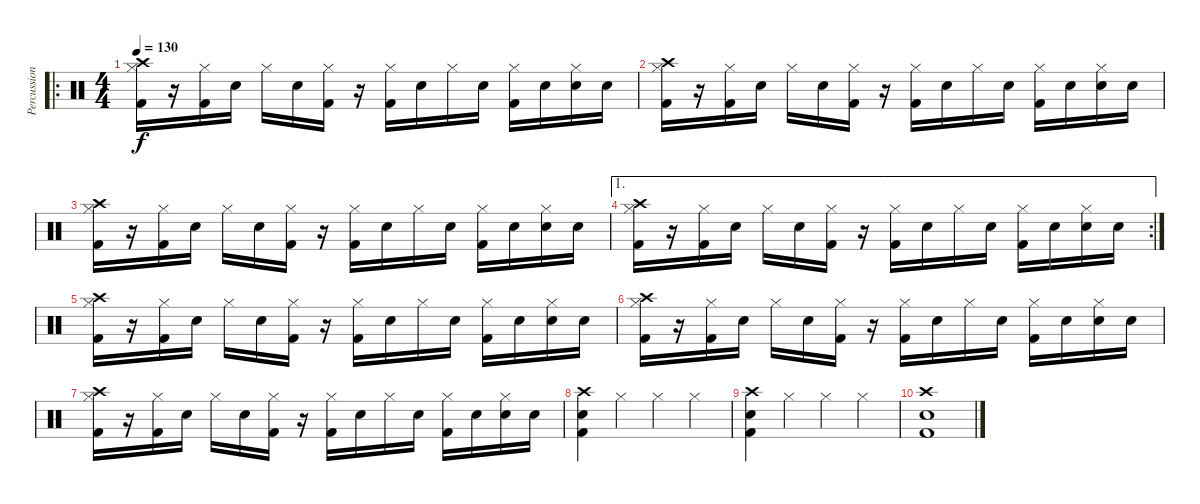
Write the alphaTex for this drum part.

\track ("Percussion" "Percussion") {instrument percussion}
\staff {score}
\articulation defaults
\ro
\ts (4 4)
\tempo 130
\clef neutral
\ks c
("Crash high (hit)" "Hi-Hat (closed)" "Kick (hit) 2").16{dy f} r.16 ("Hi-Hat (closed)" "Kick (hit) 2").16 "Snare (hit) 2".16 "Hi-Hat (closed)".16 "Snare (hit) 2".16 ("Hi-Hat (closed)" "Kick (hit) 2").16 r.16 ("Hi-Hat (closed)" "Kick (hit) 2").16 "Snare (hit) 2".16 "Hi-Hat (closed)".16 "Snare (hit) 2".16 ("Hi-Hat (closed)" "Kick (hit) 2").16 "Snare (hit) 2".16 ("Hi-Hat (closed)" "Snare (hit) 2").16 "Snare (hit) 2".16 |
("Crash high (hit)" "Hi-Hat (closed)" "Kick (hit) 2").16 r.16 ("Hi-Hat (closed)" "Kick (hit) 2").16 "Snare (hit) 2".16 "Hi-Hat (closed)".16 "Snare (hit) 2".16 ("Hi-Hat (closed)" "Kick (hit) 2").16 r.16 ("Hi-Hat (closed)" "Kick (hit) 2").16 "Snare (hit) 2".16 "Hi-Hat (closed)".16 "Snare (hit) 2".16 ("Hi-Hat (closed)" "Kick (hit) 2").16 "Snare (hit) 2".16 ("Hi-Hat (closed)" "Snare (hit) 2").16 "Snare (hit) 2".16 |
("Crash high (hit)" "Hi-Hat (closed)" "Kick (hit) 2").16 r.16 ("Hi-Hat (closed)" "Kick (hit) 2").16 "Snare (hit) 2".16 "Hi-Hat (closed)".16 "Snare (hit) 2".16 ("Hi-Hat (closed)" "Kick (hit) 2").16 r.16 ("Hi-Hat (closed)" "Kick (hit) 2").16 "Snare (hit) 2".16 "Hi-Hat (closed)".16 "Snare (hit) 2".16 ("Hi-Hat (closed)" "Kick (hit) 2").16 "Snare (hit) 2".16 ("Hi-Hat (closed)" "Snare (hit) 2").16 "Snare (hit) 2".16 |
\ae 1
\rc 2
("Crash high (hit)" "Hi-Hat (closed)" "Kick (hit) 2").16 r.16 ("Hi-Hat (closed)" "Kick (hit) 2").16 "Snare (hit) 2".16 "Hi-Hat (closed)".16 "Snare (hit) 2".16 ("Hi-Hat (closed)" "Kick (hit) 2").16 r.16 ("Hi-Hat (closed)" "Kick (hit) 2").16 "Snare (hit) 2".16 "Hi-Hat (closed)".16 "Snare (hit) 2".16 ("Hi-Hat (closed)" "Kick (hit) 2").16 "Snare (hit) 2".16 ("Hi-Hat (closed)" "Snare (hit) 2").16 "Snare (hit) 2".16 |
("Crash high (hit)" "Hi-Hat (closed)" "Kick (hit) 2").16 r.16 ("Hi-Hat (closed)" "Kick (hit) 2").16 "Snare (hit) 2".16 "Hi-Hat (closed)".16 "Snare (hit) 2".16 ("Hi-Hat (closed)" "Kick (hit) 2").16 r.16 ("Hi-Hat (closed)" "Kick (hit) 2").16 "Snare (hit) 2".16 "Hi-Hat (closed)".16 "Snare (hit) 2".16 ("Hi-Hat (closed)" "Kick (hit) 2").16 "Snare (hit) 2".16 ("Hi-Hat (closed)" "Snare (hit) 2").16 "Snare (hit) 2".16 |
("Crash high (hit)" "Hi-Hat (closed)" "Kick (hit) 2").16 r.16 ("Hi-Hat (closed)" "Kick (hit) 2").16 "Snare (hit) 2".16 "Hi-Hat (closed)".16 "Snare (hit) 2".16 ("Hi-Hat (closed)" "Kick (hit) 2").16 r.16 ("Hi-Hat (closed)" "Kick (hit) 2").16 "Snare (hit) 2".16 "Hi-Hat (closed)".16 "Snare (hit) 2".16 ("Hi-Hat (closed)" "Kick (hit) 2").16 "Snare (hit) 2".16 ("Hi-Hat (closed)" "Snare (hit) 2").16 "Snare (hit) 2".16 |
("Crash high (hit)" "Hi-Hat (closed)" "Kick (hit) 2").16 r.16 ("Hi-Hat (closed)" "Kick (hit) 2").16 "Snare (hit) 2".16 "Hi-Hat (closed)".16 "Snare (hit) 2".16 ("Hi-Hat (closed)" "Kick (hit) 2").16 r.16 ("Hi-Hat (closed)" "Kick (hit) 2").16 "Snare (hit) 2".16 "Hi-Hat (closed)".16 "Snare (hit) 2".16 ("Hi-Hat (closed)" "Kick (hit) 2").16 "Snare (hit) 2".16 ("Hi-Hat (closed)" "Snare (hit) 2").16 "Snare (hit) 2".16 |
("Crash high (hit)" "Snare (hit) 2" "Kick (hit) 2").4 "Hi-Hat (closed)".4 "Hi-Hat (closed)".4 "Hi-Hat (closed)".4 |
("Crash high (hit)" "Snare (hit) 2" "Kick (hit) 2").4 "Hi-Hat (closed)".4 "Hi-Hat (closed)".4 "Hi-Hat (closed)".4 |
("Crash high (hit)" "Snare (hit) 2" "Kick (hit) 2").1
